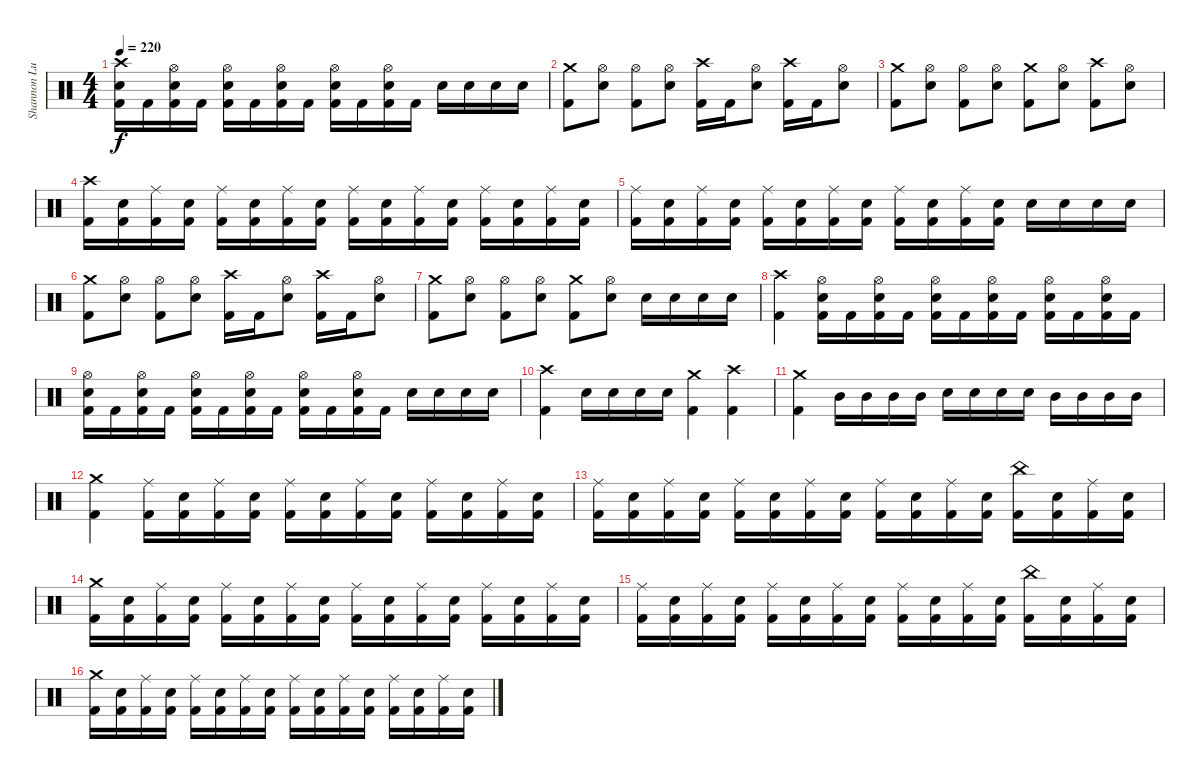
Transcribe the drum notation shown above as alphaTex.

\track ("Shannon Lucas (Drums)" "Shannon Lu") {instrument percussion}
\staff {score}
\articulation defaults
\ts (4 4)
\tempo 220
\clef neutral
\ks c
("Crash high (hit)" "Snare (hit) 2" "Kick (hit) 2").16{dy f} "Kick (hit) 2".16 ("Hi-Hat (open)" "Snare (hit) 2" "Kick (hit) 2").16 "Kick (hit) 2".16 ("Hi-Hat (open)" "Snare (hit) 2" "Kick (hit) 2").16 "Kick (hit) 2".16 ("Hi-Hat (open)" "Snare (hit) 2" "Kick (hit) 2").16 "Kick (hit) 2".16 ("Hi-Hat (open)" "Snare (hit) 2" "Kick (hit) 2").16 "Kick (hit) 2".16 ("Hi-Hat (open)" "Snare (hit) 2" "Kick (hit) 2").16 "Kick (hit) 2".16 "Snare (hit) 2".16 "Snare (hit) 2".16 "Snare (hit) 2".16 "Snare (hit) 2".16 |
("Crash medium (hit)" "Kick (hit) 2").8 ("Hi-Hat (open)" "Snare (hit) 2").8 ("Hi-Hat (open)" "Kick (hit) 2").8 ("Hi-Hat (open)" "Snare (hit) 2").8 ("Crash high (hit)" "Kick (hit) 2").16 "Kick (hit) 2".16 ("Hi-Hat (open)" "Snare (hit) 2").8 ("Crash high (hit)" "Kick (hit) 2").16 "Kick (hit) 2".16 ("Hi-Hat (open)" "Snare (hit) 2").8 |
("Crash medium (hit)" "Kick (hit) 2").8 ("Hi-Hat (open)" "Snare (hit) 2").8 ("Hi-Hat (open)" "Kick (hit) 2").8 ("Hi-Hat (open)" "Snare (hit) 2").8 ("Crash medium (hit)" "Kick (hit) 2").8 ("Hi-Hat (open)" "Snare (hit) 2").8 ("Crash high (hit)" "Kick (hit) 2").8 ("Hi-Hat (open)" "Snare (hit) 2").8 |
("Crash high (hit)" "Kick (hit) 2").16 ("Snare (hit) 2" "Kick (hit) 2").16 ("Ride (middle)" "Kick (hit) 2").16 ("Snare (hit) 2" "Kick (hit) 2").16 ("Ride (middle)" "Kick (hit) 2").16 ("Snare (hit) 2" "Kick (hit) 2").16 ("Ride (middle)" "Kick (hit) 2").16 ("Snare (hit) 2" "Kick (hit) 2").16 ("Ride (middle)" "Kick (hit) 2").16 ("Snare (hit) 2" "Kick (hit) 2").16 ("Ride (middle)" "Kick (hit) 2").16 ("Snare (hit) 2" "Kick (hit) 2").16 ("Ride (middle)" "Kick (hit) 2").16 ("Snare (hit) 2" "Kick (hit) 2").16 ("Ride (middle)" "Kick (hit) 2").16 ("Snare (hit) 2" "Kick (hit) 2").16 |
("Ride (middle)" "Kick (hit) 2").16 ("Snare (hit) 2" "Kick (hit) 2").16 ("Ride (middle)" "Kick (hit) 2").16 ("Snare (hit) 2" "Kick (hit) 2").16 ("Ride (middle)" "Kick (hit) 2").16 ("Snare (hit) 2" "Kick (hit) 2").16 ("Ride (middle)" "Kick (hit) 2").16 ("Snare (hit) 2" "Kick (hit) 2").16 ("Ride (middle)" "Kick (hit) 2").16 ("Snare (hit) 2" "Kick (hit) 2").16 ("Ride (middle)" "Kick (hit) 2").16 ("Snare (hit) 2" "Kick (hit) 2").16 "Snare (hit) 2".16 "Snare (hit) 2".16 "Snare (hit) 2".16 "Snare (hit) 2".16 |
("Crash medium (hit)" "Kick (hit) 2").8 ("Hi-Hat (open)" "Snare (hit) 2").8 ("Hi-Hat (open)" "Kick (hit) 2").8 ("Hi-Hat (open)" "Snare (hit) 2").8 ("Crash high (hit)" "Kick (hit) 2").16 "Kick (hit) 2".16 ("Hi-Hat (open)" "Snare (hit) 2").8 ("Crash high (hit)" "Kick (hit) 2").16 "Kick (hit) 2".16 ("Hi-Hat (open)" "Snare (hit) 2").8 |
("Crash medium (hit)" "Kick (hit) 2").8 ("Hi-Hat (open)" "Snare (hit) 2").8 ("Hi-Hat (open)" "Kick (hit) 2").8 ("Hi-Hat (open)" "Snare (hit) 2").8 ("Crash medium (hit)" "Kick (hit) 2").8 ("Hi-Hat (open)" "Snare (hit) 2").8 "Snare (hit) 2".16 "Snare (hit) 2".16 "Snare (hit) 2".16 "Snare (hit) 2".16 |
("Crash high (hit)" "Kick (hit) 2").4 ("Hi-Hat (open)" "Snare (hit) 2" "Kick (hit) 2").16 "Kick (hit) 2".16 ("Hi-Hat (open)" "Snare (hit) 2" "Kick (hit) 2").16 "Kick (hit) 2".16 ("Hi-Hat (open)" "Snare (hit) 2" "Kick (hit) 2").16 "Kick (hit) 2".16 ("Hi-Hat (open)" "Snare (hit) 2" "Kick (hit) 2").16 "Kick (hit) 2".16 ("Hi-Hat (open)" "Snare (hit) 2" "Kick (hit) 2").16 "Kick (hit) 2".16 ("Hi-Hat (open)" "Snare (hit) 2" "Kick (hit) 2").16 "Kick (hit) 2".16 |
("Hi-Hat (open)" "Snare (hit) 2" "Kick (hit) 2").16 "Kick (hit) 2".16 ("Hi-Hat (open)" "Snare (hit) 2" "Kick (hit) 2").16 "Kick (hit) 2".16 ("Hi-Hat (open)" "Snare (hit) 2" "Kick (hit) 2").16 "Kick (hit) 2".16 ("Hi-Hat (open)" "Snare (hit) 2" "Kick (hit) 2").16 "Kick (hit) 2".16 ("Hi-Hat (open)" "Snare (hit) 2" "Kick (hit) 2").16 "Kick (hit) 2".16 ("Hi-Hat (open)" "Snare (hit) 2" "Kick (hit) 2").16 "Kick (hit) 2".16 "Snare (hit) 2".16 "Snare (hit) 2".16 "Snare (hit) 2".16 "Snare (hit) 2".16 |
("Crash high (hit)" "Kick (hit) 2").4 "Snare (hit) 2".16 "Snare (hit) 2".16 "Snare (hit) 2".16 "Snare (hit) 2".16 ("Crash medium (hit)" "Kick (hit) 2").4 ("Crash high (hit)" "Kick (hit) 2").4 |
("Crash medium (hit)" "Kick (hit) 2").4 "Mid Tom (hit)".16 "Mid Tom (hit)".16 "Mid Tom (hit)".16 "Mid Tom (hit)".16 "Snare (hit) 2".16 "Snare (hit) 2".16 "Snare (hit) 2".16 "Snare (hit) 2".16 "Mid Tom (hit)".16 "Mid Tom (hit)".16 "Mid Tom (hit)".16 "Mid Tom (hit)".16 |
("Crash medium (hit)" "Kick (hit) 2").4 ("Ride (middle)" "Kick (hit) 2").16 ("Snare (hit) 2" "Kick (hit) 2").16 ("Ride (middle)" "Kick (hit) 2").16 ("Snare (hit) 2" "Kick (hit) 2").16 ("Ride (middle)" "Kick (hit) 2").16 ("Snare (hit) 2" "Kick (hit) 2").16 ("Ride (middle)" "Kick (hit) 2").16 ("Snare (hit) 2" "Kick (hit) 2").16 ("Ride (middle)" "Kick (hit) 2").16 ("Snare (hit) 2" "Kick (hit) 2").16 ("Ride (middle)" "Kick (hit) 2").16 ("Snare (hit) 2" "Kick (hit) 2").16 |
("Ride (middle)" "Kick (hit) 2").16 ("Snare (hit) 2" "Kick (hit) 2").16 ("Ride (middle)" "Kick (hit) 2").16 ("Snare (hit) 2" "Kick (hit) 2").16 ("Ride (middle)" "Kick (hit) 2").16 ("Snare (hit) 2" "Kick (hit) 2").16 ("Ride (middle)" "Kick (hit) 2").16 ("Snare (hit) 2" "Kick (hit) 2").16 ("Ride (middle)" "Kick (hit) 2").16 ("Snare (hit) 2" "Kick (hit) 2").16 ("Ride (middle)" "Kick (hit) 2").16 ("Snare (hit) 2" "Kick (hit) 2").16 ("China (hit)" "Kick (hit) 2").16 ("Snare (hit) 2" "Kick (hit) 2").16 ("Ride (middle)" "Kick (hit) 2").16 ("Snare (hit) 2" "Kick (hit) 2").16 |
("Crash medium (hit)" "Kick (hit) 2").16 ("Snare (hit) 2" "Kick (hit) 2").16 ("Ride (middle)" "Kick (hit) 2").16 ("Snare (hit) 2" "Kick (hit) 2").16 ("Ride (middle)" "Kick (hit) 2").16 ("Snare (hit) 2" "Kick (hit) 2").16 ("Ride (middle)" "Kick (hit) 2").16 ("Snare (hit) 2" "Kick (hit) 2").16 ("Ride (middle)" "Kick (hit) 2").16 ("Snare (hit) 2" "Kick (hit) 2").16 ("Ride (middle)" "Kick (hit) 2").16 ("Snare (hit) 2" "Kick (hit) 2").16 ("Ride (middle)" "Kick (hit) 2").16 ("Snare (hit) 2" "Kick (hit) 2").16 ("Ride (middle)" "Kick (hit) 2").16 ("Snare (hit) 2" "Kick (hit) 2").16 |
("Ride (middle)" "Kick (hit) 2").16 ("Snare (hit) 2" "Kick (hit) 2").16 ("Ride (middle)" "Kick (hit) 2").16 ("Snare (hit) 2" "Kick (hit) 2").16 ("Ride (middle)" "Kick (hit) 2").16 ("Snare (hit) 2" "Kick (hit) 2").16 ("Ride (middle)" "Kick (hit) 2").16 ("Snare (hit) 2" "Kick (hit) 2").16 ("Ride (middle)" "Kick (hit) 2").16 ("Snare (hit) 2" "Kick (hit) 2").16 ("Ride (middle)" "Kick (hit) 2").16 ("Snare (hit) 2" "Kick (hit) 2").16 ("China (hit)" "Kick (hit) 2").16 ("Snare (hit) 2" "Kick (hit) 2").16 ("Ride (middle)" "Kick (hit) 2").16 ("Snare (hit) 2" "Kick (hit) 2").16 |
("Crash medium (hit)" "Kick (hit) 2").16 ("Snare (hit) 2" "Kick (hit) 2").16 ("Ride (middle)" "Kick (hit) 2").16 ("Snare (hit) 2" "Kick (hit) 2").16 ("Ride (middle)" "Kick (hit) 2").16 ("Snare (hit) 2" "Kick (hit) 2").16 ("Ride (middle)" "Kick (hit) 2").16 ("Snare (hit) 2" "Kick (hit) 2").16 ("Ride (middle)" "Kick (hit) 2").16 ("Snare (hit) 2" "Kick (hit) 2").16 ("Ride (middle)" "Kick (hit) 2").16 ("Snare (hit) 2" "Kick (hit) 2").16 ("Ride (middle)" "Kick (hit) 2").16 ("Snare (hit) 2" "Kick (hit) 2").16 ("Ride (middle)" "Kick (hit) 2").16 ("Snare (hit) 2" "Kick (hit) 2").16
